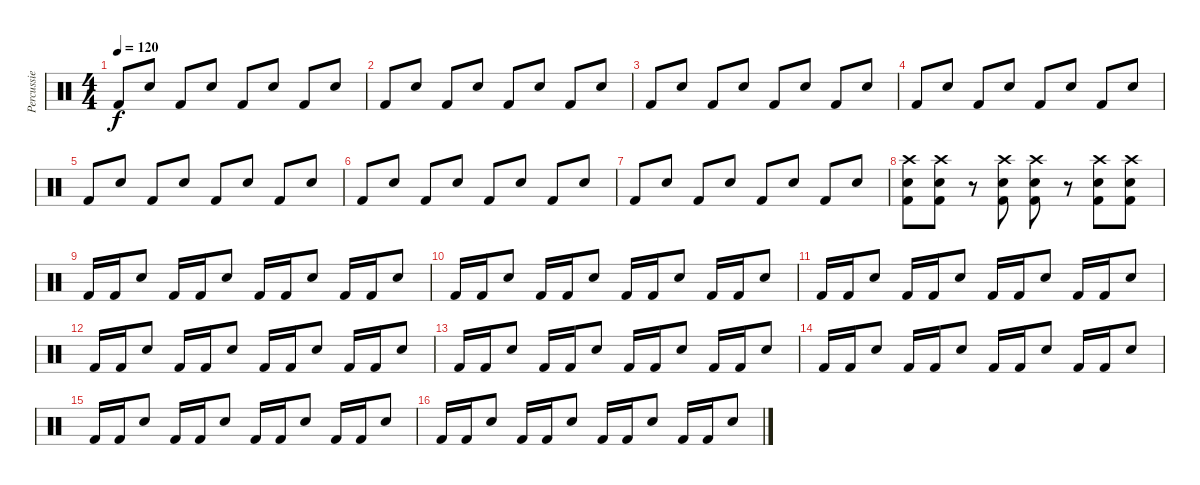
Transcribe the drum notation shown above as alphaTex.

\track ("Percussie" "Percussie") {instrument percussion}
\staff {score}
\articulation defaults
\ts (4 4)
\tempo 120
\clef neutral
\ks c "Kick (hit) 2".8{dy f} "Electric Snare (hit)".8 "Kick (hit) 2".8 "Electric Snare (hit)".8 "Kick (hit) 2".8 "Electric Snare (hit)".8 "Kick (hit) 2".8 "Electric Snare (hit)".8
|
"Kick (hit) 2".8 "Electric Snare (hit)".8 "Kick (hit) 2".8 "Electric Snare (hit)".8 "Kick (hit) 2".8 "Electric Snare (hit)".8 "Kick (hit) 2".8 "Electric Snare (hit)".8 |
"Kick (hit) 2".8 "Electric Snare (hit)".8 "Kick (hit) 2".8 "Electric Snare (hit)".8 "Kick (hit) 2".8 "Electric Snare (hit)".8 "Kick (hit) 2".8 "Electric Snare (hit)".8 |
"Kick (hit) 2".8 "Electric Snare (hit)".8 "Kick (hit) 2".8 "Electric Snare (hit)".8 "Kick (hit) 2".8 "Electric Snare (hit)".8 "Kick (hit) 2".8 "Electric Snare (hit)".8 |
"Kick (hit) 2".8 "Electric Snare (hit)".8 "Kick (hit) 2".8 "Electric Snare (hit)".8 "Kick (hit) 2".8 "Electric Snare (hit)".8 "Kick (hit) 2".8 "Electric Snare (hit)".8 |
"Kick (hit) 2".8 "Electric Snare (hit)".8 "Kick (hit) 2".8 "Electric Snare (hit)".8 "Kick (hit) 2".8 "Electric Snare (hit)".8 "Kick (hit) 2".8 "Electric Snare (hit)".8 |
"Kick (hit) 2".8 "Electric Snare (hit)".8 "Kick (hit) 2".8 "Electric Snare (hit)".8 "Kick (hit) 2".8 "Electric Snare (hit)".8 "Kick (hit) 2".8 "Electric Snare (hit)".8 |
("Crash high (hit)" "Kick (hit) 2" "Electric Snare (hit)").8 ("Crash high (hit)" "Kick (hit) 2" "Electric Snare (hit)").8 r.8 ("Crash high (hit)" "Kick (hit) 2" "Electric Snare (hit)").8 ("Crash high (hit)" "Kick (hit) 2" "Electric Snare (hit)").8 r.8 ("Crash high (hit)" "Kick (hit) 2" "Electric Snare (hit)").8 ("Crash high (hit)" "Kick (hit) 2" "Electric Snare (hit)").8 |
"Kick (hit) 2".16 "Kick (hit) 2".16 "Electric Snare (hit)".8 "Kick (hit) 2".16 "Kick (hit) 2".16 "Electric Snare (hit)".8 "Kick (hit) 2".16 "Kick (hit) 2".16 "Electric Snare (hit)".8 "Kick (hit) 2".16 "Kick (hit) 2".16 "Electric Snare (hit)".8 |
"Kick (hit) 2".16 "Kick (hit) 2".16 "Electric Snare (hit)".8 "Kick (hit) 2".16 "Kick (hit) 2".16 "Electric Snare (hit)".8 "Kick (hit) 2".16 "Kick (hit) 2".16 "Electric Snare (hit)".8 "Kick (hit) 2".16 "Kick (hit) 2".16 "Electric Snare (hit)".8 |
"Kick (hit) 2".16 "Kick (hit) 2".16 "Electric Snare (hit)".8 "Kick (hit) 2".16 "Kick (hit) 2".16 "Electric Snare (hit)".8 "Kick (hit) 2".16 "Kick (hit) 2".16 "Electric Snare (hit)".8 "Kick (hit) 2".16 "Kick (hit) 2".16 "Electric Snare (hit)".8 |
"Kick (hit) 2".16 "Kick (hit) 2".16 "Electric Snare (hit)".8 "Kick (hit) 2".16 "Kick (hit) 2".16 "Electric Snare (hit)".8 "Kick (hit) 2".16 "Kick (hit) 2".16 "Electric Snare (hit)".8 "Kick (hit) 2".16 "Kick (hit) 2".16 "Electric Snare (hit)".8 |
"Kick (hit) 2".16 "Kick (hit) 2".16 "Electric Snare (hit)".8 "Kick (hit) 2".16 "Kick (hit) 2".16 "Electric Snare (hit)".8 "Kick (hit) 2".16 "Kick (hit) 2".16 "Electric Snare (hit)".8 "Kick (hit) 2".16 "Kick (hit) 2".16 "Electric Snare (hit)".8 |
"Kick (hit) 2".16 "Kick (hit) 2".16 "Electric Snare (hit)".8 "Kick (hit) 2".16 "Kick (hit) 2".16 "Electric Snare (hit)".8 "Kick (hit) 2".16 "Kick (hit) 2".16 "Electric Snare (hit)".8 "Kick (hit) 2".16 "Kick (hit) 2".16 "Electric Snare (hit)".8 |
"Kick (hit) 2".16 "Kick (hit) 2".16 "Electric Snare (hit)".8 "Kick (hit) 2".16 "Kick (hit) 2".16 "Electric Snare (hit)".8 "Kick (hit) 2".16 "Kick (hit) 2".16 "Electric Snare (hit)".8 "Kick (hit) 2".16 "Kick (hit) 2".16 "Electric Snare (hit)".8 |
"Kick (hit) 2".16 "Kick (hit) 2".16 "Electric Snare (hit)".8 "Kick (hit) 2".16 "Kick (hit) 2".16 "Electric Snare (hit)".8 "Kick (hit) 2".16 "Kick (hit) 2".16 "Electric Snare (hit)".8 "Kick (hit) 2".16 "Kick (hit) 2".16 "Electric Snare (hit)".8
